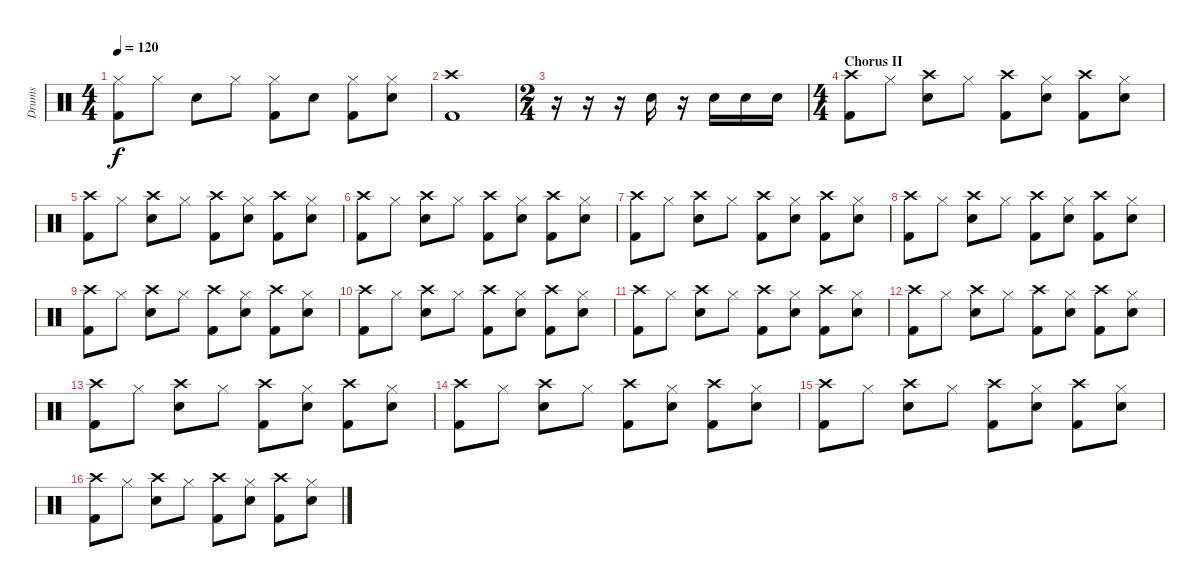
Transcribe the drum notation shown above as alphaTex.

\track ("Drums" "Drums") {instrument percussion}
\staff {score}
\articulation defaults
\ts (4 4)
\tempo 120
\clef neutral
\ks c
("Kick (hit) 2" "Hi-Hat (closed)").8{dy f} "Hi-Hat (closed)".8 "Snare (hit) 2".8 "Hi-Hat (closed)".8 ("Kick (hit) 2" "Hi-Hat (closed)").8 "Snare (hit) 2".8 ("Kick (hit) 2" "Hi-Hat (closed)").8 ("Snare (hit) 2" "Hi-Hat (closed)").8 |
("Kick (hit) 2" "Crash high (hit)").1 |
\ts (2 4)
r.16 r.16 r.16 "Snare (hit) 2".16 r.16 "Snare (hit) 2".16 "Snare (hit) 2".16 "Snare (hit) 2".16 |
\ts (4 4)
\section ("" "Chorus II")
("Kick (hit) 2" "Crash high (hit)").8 "Hi-Hat (closed)".8 ("Snare (hit) 2" "Crash high (hit)").8 "Hi-Hat (closed)".8 ("Kick (hit) 2" "Crash high (hit)").8 ("Snare (hit) 2" "Hi-Hat (closed)").8 ("Kick (hit) 2" "Crash high (hit)").8 ("Snare (hit) 2" "Hi-Hat (closed)").8 |
("Kick (hit) 2" "Crash high (hit)").8 "Hi-Hat (closed)".8 ("Snare (hit) 2" "Crash high (hit)").8 "Hi-Hat (closed)".8 ("Kick (hit) 2" "Crash high (hit)").8 ("Snare (hit) 2" "Hi-Hat (closed)").8 ("Kick (hit) 2" "Crash high (hit)").8 ("Snare (hit) 2" "Hi-Hat (closed)").8 |
("Kick (hit) 2" "Crash high (hit)").8 "Hi-Hat (closed)".8 ("Snare (hit) 2" "Crash high (hit)").8 "Hi-Hat (closed)".8 ("Kick (hit) 2" "Crash high (hit)").8 ("Snare (hit) 2" "Hi-Hat (closed)").8 ("Kick (hit) 2" "Crash high (hit)").8 ("Snare (hit) 2" "Hi-Hat (closed)").8 |
("Kick (hit) 2" "Crash high (hit)").8 "Hi-Hat (closed)".8 ("Snare (hit) 2" "Crash high (hit)").8 "Hi-Hat (closed)".8 ("Kick (hit) 2" "Crash high (hit)").8 ("Snare (hit) 2" "Hi-Hat (closed)").8 ("Kick (hit) 2" "Crash high (hit)").8 ("Snare (hit) 2" "Hi-Hat (closed)").8 |
("Kick (hit) 2" "Crash high (hit)").8 "Hi-Hat (closed)".8 ("Snare (hit) 2" "Crash high (hit)").8 "Hi-Hat (closed)".8 ("Kick (hit) 2" "Crash high (hit)").8 ("Snare (hit) 2" "Hi-Hat (closed)").8 ("Kick (hit) 2" "Crash high (hit)").8 ("Snare (hit) 2" "Hi-Hat (closed)").8 |
("Kick (hit) 2" "Crash high (hit)").8 "Hi-Hat (closed)".8 ("Snare (hit) 2" "Crash high (hit)").8 "Hi-Hat (closed)".8 ("Kick (hit) 2" "Crash high (hit)").8 ("Snare (hit) 2" "Hi-Hat (closed)").8 ("Kick (hit) 2" "Crash high (hit)").8 ("Snare (hit) 2" "Hi-Hat (closed)").8 |
("Kick (hit) 2" "Crash high (hit)").8 "Hi-Hat (closed)".8 ("Snare (hit) 2" "Crash high (hit)").8 "Hi-Hat (closed)".8 ("Kick (hit) 2" "Crash high (hit)").8 ("Snare (hit) 2" "Hi-Hat (closed)").8 ("Kick (hit) 2" "Crash high (hit)").8 ("Snare (hit) 2" "Hi-Hat (closed)").8 |
("Kick (hit) 2" "Crash high (hit)").8 "Hi-Hat (closed)".8 ("Snare (hit) 2" "Crash high (hit)").8 "Hi-Hat (closed)".8 ("Kick (hit) 2" "Crash high (hit)").8 ("Snare (hit) 2" "Hi-Hat (closed)").8 ("Kick (hit) 2" "Crash high (hit)").8 ("Snare (hit) 2" "Hi-Hat (closed)").8 |
("Kick (hit) 2" "Crash high (hit)").8 "Hi-Hat (closed)".8 ("Snare (hit) 2" "Crash high (hit)").8 "Hi-Hat (closed)".8 ("Kick (hit) 2" "Crash high (hit)").8 ("Snare (hit) 2" "Hi-Hat (closed)").8 ("Kick (hit) 2" "Crash high (hit)").8 ("Snare (hit) 2" "Hi-Hat (closed)").8 |
("Kick (hit) 2" "Crash high (hit)").8 "Hi-Hat (closed)".8 ("Snare (hit) 2" "Crash high (hit)").8 "Hi-Hat (closed)".8 ("Kick (hit) 2" "Crash high (hit)").8 ("Snare (hit) 2" "Hi-Hat (closed)").8 ("Kick (hit) 2" "Crash high (hit)").8 ("Snare (hit) 2" "Hi-Hat (closed)").8 |
("Kick (hit) 2" "Crash high (hit)").8 "Hi-Hat (closed)".8 ("Snare (hit) 2" "Crash high (hit)").8 "Hi-Hat (closed)".8 ("Kick (hit) 2" "Crash high (hit)").8 ("Snare (hit) 2" "Hi-Hat (closed)").8 ("Kick (hit) 2" "Crash high (hit)").8 ("Snare (hit) 2" "Hi-Hat (closed)").8 |
("Kick (hit) 2" "Crash high (hit)").8 "Hi-Hat (closed)".8 ("Snare (hit) 2" "Crash high (hit)").8 "Hi-Hat (closed)".8 ("Kick (hit) 2" "Crash high (hit)").8 ("Snare (hit) 2" "Hi-Hat (closed)").8 ("Kick (hit) 2" "Crash high (hit)").8 ("Snare (hit) 2" "Hi-Hat (closed)").8 |
("Kick (hit) 2" "Crash high (hit)").8 "Hi-Hat (closed)".8 ("Snare (hit) 2" "Crash high (hit)").8 "Hi-Hat (closed)".8 ("Kick (hit) 2" "Crash high (hit)").8 ("Snare (hit) 2" "Hi-Hat (closed)").8 ("Kick (hit) 2" "Crash high (hit)").8 ("Snare (hit) 2" "Hi-Hat (closed)").8
